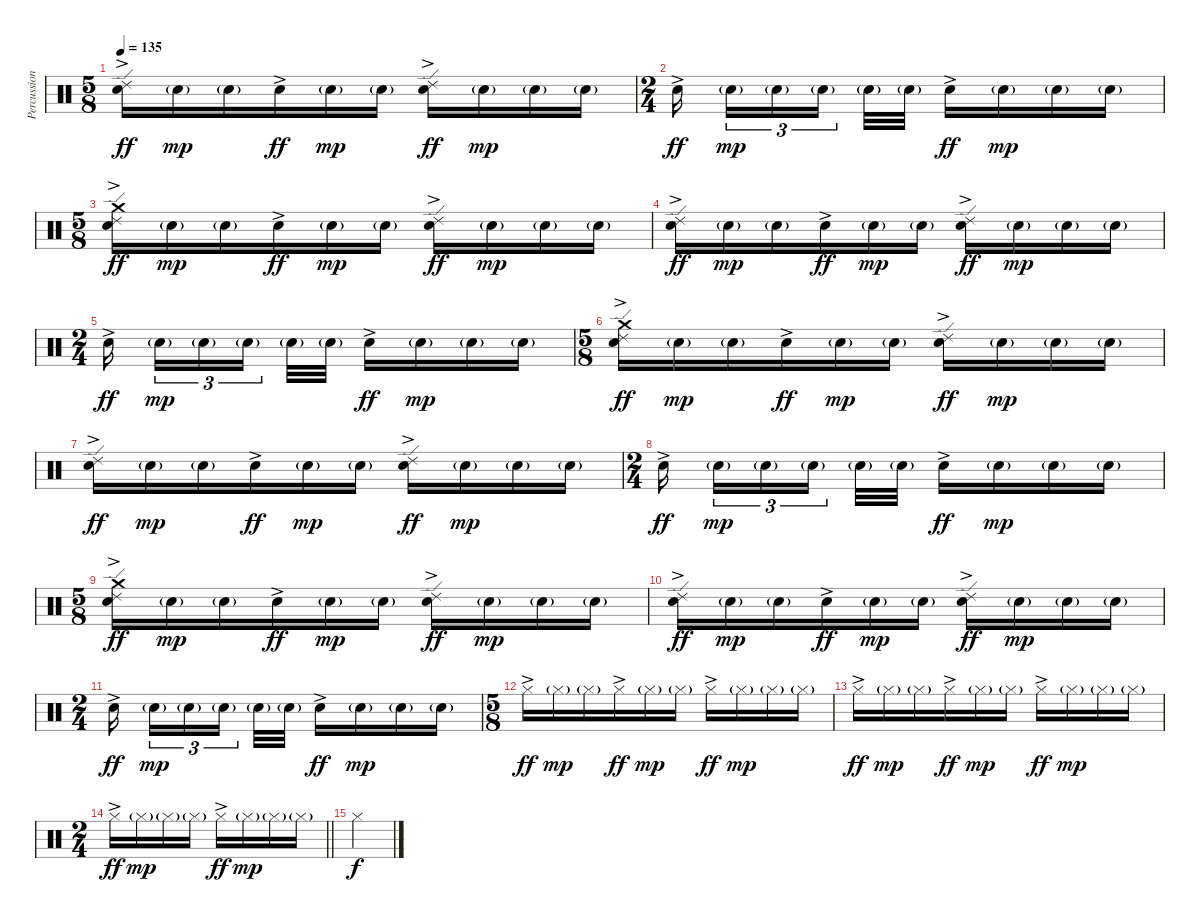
\track ("Percussion" "Percussion") {instrument percussion}
\staff {score}
\articulation defaults
\ts (5 8)
\tempo 135
\clef neutral
\ks c
("Ride (edge) 2" "Snare (hit) 2"{ac}).16{dy ff} "Snare (hit) 2"{g}.16{dy mp} "Snare (hit) 2"{g}.16 "Snare (hit) 2"{ac}.16{dy ff} "Snare (hit) 2"{g}.16{dy mp} "Snare (hit) 2"{g}.16 ("Ride (edge) 2" "Snare (hit) 2"{ac}).16{dy ff} "Snare (hit) 2"{g}.16{dy mp} "Snare (hit) 2"{g}.16 "Snare (hit) 2"{g}.16 |
\ts (2 4)
"Snare (hit) 2"{ac}.16{dy ff beam splitsecondary} "Snare (hit) 2"{g}.16{tu (3 2) dy mp} "Snare (hit) 2"{g}.16{tu (3 2)} "Snare (hit) 2"{g}.16{tu (3 2) beam splitsecondary} "Snare (hit) 2"{g}.32 "Snare (hit) 2"{g}.32 "Snare (hit) 2"{ac}.16{dy ff} "Snare (hit) 2"{g}.16{dy mp} "Snare (hit) 2"{g}.16 "Snare (hit) 2"{g}.16 |
\ts (5 8)
("Ride (edge) 2" "Crash medium (hit)" "Snare (hit) 2"{ac}).16{dy ff} "Snare (hit) 2"{g}.16{dy mp} "Snare (hit) 2"{g}.16 "Snare (hit) 2"{ac}.16{dy ff} "Snare (hit) 2"{g}.16{dy mp} "Snare (hit) 2"{g}.16 ("Ride (edge) 2" "Snare (hit) 2"{ac}).16{dy ff} "Snare (hit) 2"{g}.16{dy mp} "Snare (hit) 2"{g}.16 "Snare (hit) 2"{g}.16 |
("Ride (edge) 2" "Snare (hit) 2"{ac}).16{dy ff} "Snare (hit) 2"{g}.16{dy mp} "Snare (hit) 2"{g}.16 "Snare (hit) 2"{ac}.16{dy ff} "Snare (hit) 2"{g}.16{dy mp} "Snare (hit) 2"{g}.16 ("Ride (edge) 2" "Snare (hit) 2"{ac}).16{dy ff} "Snare (hit) 2"{g}.16{dy mp} "Snare (hit) 2"{g}.16 "Snare (hit) 2"{g}.16 |
\ts (2 4)
"Snare (hit) 2"{ac}.16{dy ff beam splitsecondary} "Snare (hit) 2"{g}.16{tu (3 2) dy mp} "Snare (hit) 2"{g}.16{tu (3 2)} "Snare (hit) 2"{g}.16{tu (3 2) beam splitsecondary} "Snare (hit) 2"{g}.32 "Snare (hit) 2"{g}.32 "Snare (hit) 2"{ac}.16{dy ff} "Snare (hit) 2"{g}.16{dy mp} "Snare (hit) 2"{g}.16 "Snare (hit) 2"{g}.16 |
\ts (5 8)
("Ride (edge) 2" "Crash medium (hit)" "Snare (hit) 2"{ac}).16{dy ff} "Snare (hit) 2"{g}.16{dy mp} "Snare (hit) 2"{g}.16 "Snare (hit) 2"{ac}.16{dy ff} "Snare (hit) 2"{g}.16{dy mp} "Snare (hit) 2"{g}.16 ("Ride (edge) 2" "Snare (hit) 2"{ac}).16{dy ff} "Snare (hit) 2"{g}.16{dy mp} "Snare (hit) 2"{g}.16 "Snare (hit) 2"{g}.16 |
("Ride (edge) 2" "Snare (hit) 2"{ac}).16{dy ff} "Snare (hit) 2"{g}.16{dy mp} "Snare (hit) 2"{g}.16 "Snare (hit) 2"{ac}.16{dy ff} "Snare (hit) 2"{g}.16{dy mp} "Snare (hit) 2"{g}.16 ("Ride (edge) 2" "Snare (hit) 2"{ac}).16{dy ff} "Snare (hit) 2"{g}.16{dy mp} "Snare (hit) 2"{g}.16 "Snare (hit) 2"{g}.16 |
\ts (2 4)
"Snare (hit) 2"{ac}.16{dy ff beam splitsecondary} "Snare (hit) 2"{g}.16{tu (3 2) dy mp} "Snare (hit) 2"{g}.16{tu (3 2)} "Snare (hit) 2"{g}.16{tu (3 2) beam splitsecondary} "Snare (hit) 2"{g}.32 "Snare (hit) 2"{g}.32 "Snare (hit) 2"{ac}.16{dy ff} "Snare (hit) 2"{g}.16{dy mp} "Snare (hit) 2"{g}.16 "Snare (hit) 2"{g}.16 |
\ts (5 8)
("Ride (edge) 2" "Crash medium (hit)" "Snare (hit) 2"{ac}).16{dy ff} "Snare (hit) 2"{g}.16{dy mp} "Snare (hit) 2"{g}.16 "Snare (hit) 2"{ac}.16{dy ff} "Snare (hit) 2"{g}.16{dy mp} "Snare (hit) 2"{g}.16 ("Ride (edge) 2" "Snare (hit) 2"{ac}).16{dy ff} "Snare (hit) 2"{g}.16{dy mp} "Snare (hit) 2"{g}.16 "Snare (hit) 2"{g}.16 |
("Ride (edge) 2" "Snare (hit) 2"{ac}).16{dy ff} "Snare (hit) 2"{g}.16{dy mp} "Snare (hit) 2"{g}.16 "Snare (hit) 2"{ac}.16{dy ff} "Snare (hit) 2"{g}.16{dy mp} "Snare (hit) 2"{g}.16 ("Ride (edge) 2" "Snare (hit) 2"{ac}).16{dy ff} "Snare (hit) 2"{g}.16{dy mp} "Snare (hit) 2"{g}.16 "Snare (hit) 2"{g}.16 |
\ts (2 4)
"Snare (hit) 2"{ac}.16{dy ff beam splitsecondary} "Snare (hit) 2"{g}.16{tu (3 2) dy mp} "Snare (hit) 2"{g}.16{tu (3 2)} "Snare (hit) 2"{g}.16{tu (3 2) beam splitsecondary} "Snare (hit) 2"{g}.32 "Snare (hit) 2"{g}.32 "Snare (hit) 2"{ac}.16{dy ff} "Snare (hit) 2"{g}.16{dy mp} "Snare (hit) 2"{g}.16 "Snare (hit) 2"{g}.16 |
\ts (5 8)
"Hi-Hat (closed)"{ac}.16{dy ff volume 13} "Hi-Hat (closed)"{g}.16{dy mp} "Hi-Hat (closed)"{g}.16 "Hi-Hat (closed)"{ac}.16{dy ff} "Hi-Hat (closed)"{g}.16{dy mp} "Hi-Hat (closed)"{g}.16 "Hi-Hat (closed)"{ac}.16{dy ff} "Hi-Hat (closed)"{g}.16{dy mp} "Hi-Hat (closed)"{g}.16 "Hi-Hat (closed)"{g}.16 |
"Hi-Hat (closed)"{ac}.16{dy ff} "Hi-Hat (closed)"{g}.16{dy mp} "Hi-Hat (closed)"{g}.16 "Hi-Hat (closed)"{ac}.16{dy ff} "Hi-Hat (closed)"{g}.16{dy mp} "Hi-Hat (closed)"{g}.16 "Hi-Hat (closed)"{ac}.16{dy ff} "Hi-Hat (closed)"{g}.16{dy mp} "Hi-Hat (closed)"{g}.16 "Hi-Hat (closed)"{g}.16 |
\ts (2 4)
\barLineRight lightlight "Hi-Hat (closed)"{ac}.16{dy ff} "Hi-Hat (closed)"{g}.16{dy mp} "Hi-Hat (closed)"{g}.16 "Hi-Hat (closed)"{g}.16 "Hi-Hat (closed)"{ac}.16{dy ff} "Hi-Hat (closed)"{g}.16{dy mp} "Hi-Hat (closed)"{g}.16 "Hi-Hat (closed)"{g}.16
|
\section ("" "")
"Hi-Hat (closed)".4{dy f}
